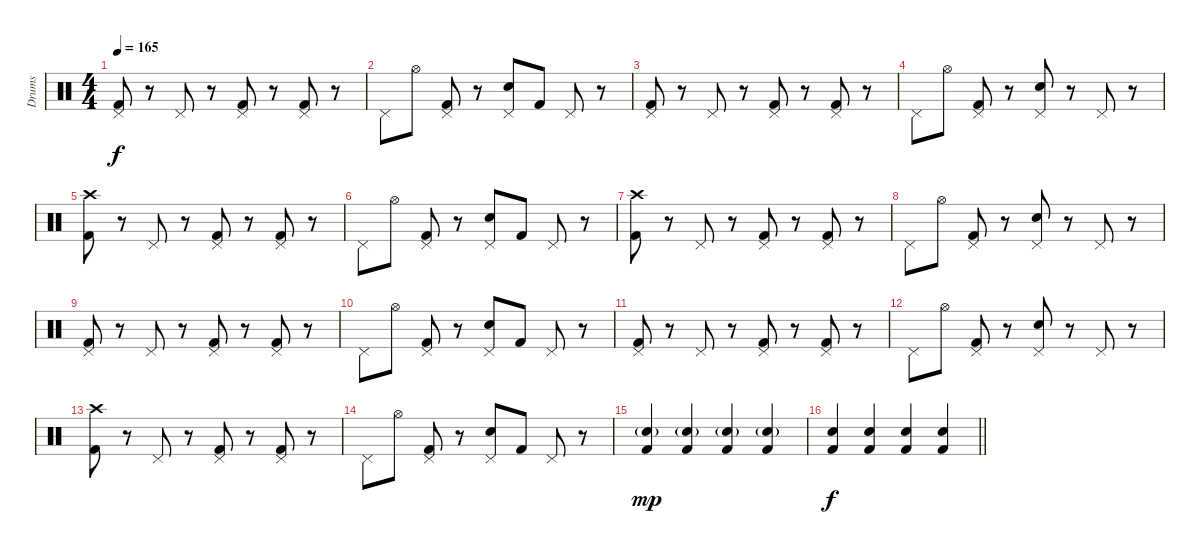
\track ("Drums" "Drums") {instrument percussion}
\staff {score}
\articulation defaults
\ts (4 4)
\tempo 165
\clef neutral
\ks c
("Pedal Hi-Hat (hit)" "Kick (hit) 2").8{dy f} r.8 "Pedal Hi-Hat (hit)".8 r.8 ("Pedal Hi-Hat (hit)" "Kick (hit) 2").8 r.8 ("Pedal Hi-Hat (hit)" "Kick (hit) 2").8 r.8 |
"Pedal Hi-Hat (hit)".8 "Hi-Hat (open)".8 ("Pedal Hi-Hat (hit)" "Kick (hit) 2").8 r.8 ("Pedal Hi-Hat (hit)" "Electric Snare (hit)").8 "Kick (hit) 2".8 "Pedal Hi-Hat (hit)".8 r.8 |
("Pedal Hi-Hat (hit)" "Kick (hit) 2").8 r.8 "Pedal Hi-Hat (hit)".8 r.8 ("Pedal Hi-Hat (hit)" "Kick (hit) 2").8 r.8 ("Pedal Hi-Hat (hit)" "Kick (hit) 2").8 r.8 |
"Pedal Hi-Hat (hit)".8 "Hi-Hat (open)".8 ("Pedal Hi-Hat (hit)" "Kick (hit) 2").8 r.8 ("Pedal Hi-Hat (hit)" "Electric Snare (hit)").8 r.8 "Pedal Hi-Hat (hit)".8 r.8 |
("Crash high (hit)" "Kick (hit) 2").8 r.8 "Pedal Hi-Hat (hit)".8 r.8 ("Pedal Hi-Hat (hit)" "Kick (hit) 2").8 r.8 ("Pedal Hi-Hat (hit)" "Kick (hit) 2").8 r.8 |
"Pedal Hi-Hat (hit)".8 "Hi-Hat (open)".8 ("Pedal Hi-Hat (hit)" "Kick (hit) 2").8 r.8 ("Pedal Hi-Hat (hit)" "Electric Snare (hit)").8 "Kick (hit) 2".8 "Pedal Hi-Hat (hit)".8 r.8 |
("Crash high (hit)" "Kick (hit) 2").8 r.8 "Pedal Hi-Hat (hit)".8 r.8 ("Pedal Hi-Hat (hit)" "Kick (hit) 2").8 r.8 ("Pedal Hi-Hat (hit)" "Kick (hit) 2").8 r.8 |
"Pedal Hi-Hat (hit)".8 "Hi-Hat (open)".8 ("Pedal Hi-Hat (hit)" "Kick (hit) 2").8 r.8 ("Pedal Hi-Hat (hit)" "Electric Snare (hit)").8 r.8 "Pedal Hi-Hat (hit)".8 r.8 |
("Pedal Hi-Hat (hit)" "Kick (hit) 2").8 r.8 "Pedal Hi-Hat (hit)".8 r.8 ("Pedal Hi-Hat (hit)" "Kick (hit) 2").8 r.8 ("Pedal Hi-Hat (hit)" "Kick (hit) 2").8 r.8 |
"Pedal Hi-Hat (hit)".8 "Hi-Hat (open)".8 ("Pedal Hi-Hat (hit)" "Kick (hit) 2").8 r.8 ("Pedal Hi-Hat (hit)" "Electric Snare (hit)").8 "Kick (hit) 2".8 "Pedal Hi-Hat (hit)".8 r.8 |
("Pedal Hi-Hat (hit)" "Kick (hit) 2").8 r.8 "Pedal Hi-Hat (hit)".8 r.8 ("Pedal Hi-Hat (hit)" "Kick (hit) 2").8 r.8 ("Pedal Hi-Hat (hit)" "Kick (hit) 2").8 r.8 |
"Pedal Hi-Hat (hit)".8 "Hi-Hat (open)".8 ("Pedal Hi-Hat (hit)" "Kick (hit) 2").8 r.8 ("Pedal Hi-Hat (hit)" "Electric Snare (hit)").8 r.8 "Pedal Hi-Hat (hit)".8 r.8 |
("Crash high (hit)" "Kick (hit) 2").8 r.8 "Pedal Hi-Hat (hit)".8 r.8 ("Pedal Hi-Hat (hit)" "Kick (hit) 2").8 r.8 ("Pedal Hi-Hat (hit)" "Kick (hit) 2").8 r.8 |
"Pedal Hi-Hat (hit)".8 "Hi-Hat (open)".8 ("Pedal Hi-Hat (hit)" "Kick (hit) 2").8 r.8 ("Pedal Hi-Hat (hit)" "Electric Snare (hit)").8 "Kick (hit) 2".8 "Pedal Hi-Hat (hit)".8 r.8 |
("Electric Snare (hit)"{g} "Kick (hit) 2").4{dy mp} ("Electric Snare (hit)"{g} "Kick (hit) 2").4 ("Electric Snare (hit)"{g} "Kick (hit) 2").4 ("Electric Snare (hit)"{g} "Kick (hit) 2").4 |
\barLineRight lightlight
("Electric Snare (hit)" "Kick (hit) 2").4{dy f} ("Electric Snare (hit)" "Kick (hit) 2").4 ("Electric Snare (hit)" "Kick (hit) 2").4 ("Electric Snare (hit)" "Kick (hit) 2").4
